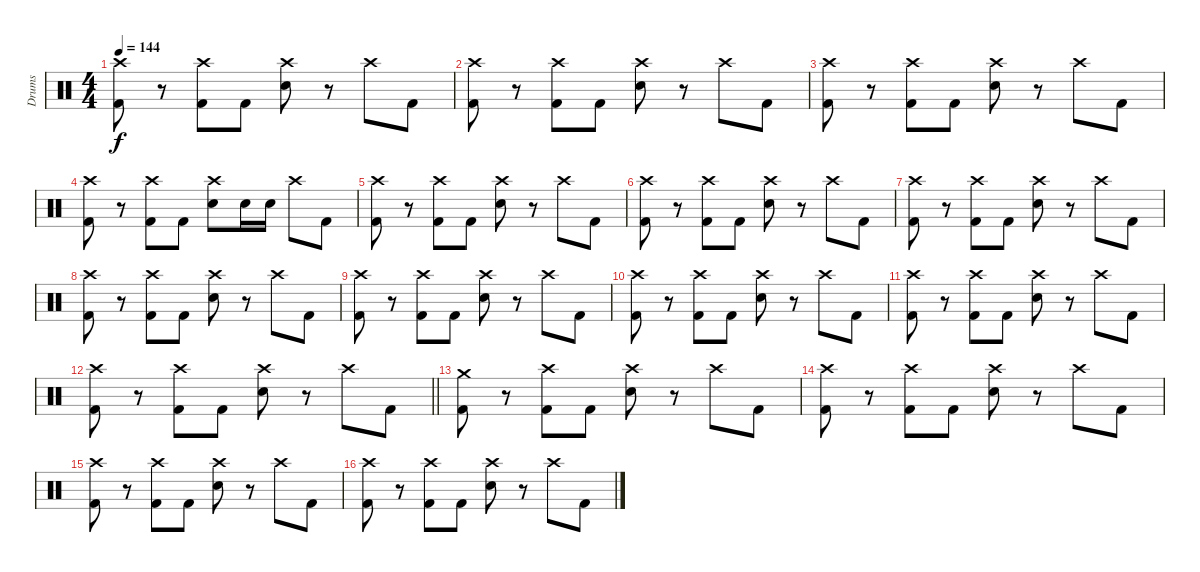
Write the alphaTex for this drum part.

\track ("Drums" "Drums") {instrument percussion}
\staff {score}
\articulation defaults
\ts (4 4)
\tempo 144
\clef neutral
\ks c
("Crash high (hit)" "Kick (hit) 2").8{dy f} r.8 ("Crash high (hit)" "Kick (hit) 2").8 "Kick (hit) 2".8 ("Crash high (hit)" "Electric Snare (hit)").8 r.8 "Crash high (hit)".8 "Kick (hit) 2".8 |
("Crash high (hit)" "Kick (hit) 2").8 r.8 ("Crash high (hit)" "Kick (hit) 2").8 "Kick (hit) 2".8 ("Crash high (hit)" "Electric Snare (hit)").8 r.8 "Crash high (hit)".8 "Kick (hit) 2".8 |
("Crash high (hit)" "Kick (hit) 2").8 r.8 ("Crash high (hit)" "Kick (hit) 2").8 "Kick (hit) 2".8 ("Crash high (hit)" "Electric Snare (hit)").8 r.8 "Crash high (hit)".8 "Kick (hit) 2".8 |
("Crash high (hit)" "Kick (hit) 2").8 r.8 ("Crash high (hit)" "Kick (hit) 2").8 "Kick (hit) 2".8 ("Crash high (hit)" "Electric Snare (hit)").8 "Electric Snare (hit)".16 "Electric Snare (hit)".16 "Crash high (hit)".8 "Kick (hit) 2".8 |
("Crash high (hit)" "Kick (hit) 2").8 r.8 ("Crash high (hit)" "Kick (hit) 2").8 "Kick (hit) 2".8 ("Crash high (hit)" "Electric Snare (hit)").8 r.8 "Crash high (hit)".8 "Kick (hit) 2".8 |
("Crash high (hit)" "Kick (hit) 2").8 r.8 ("Crash high (hit)" "Kick (hit) 2").8 "Kick (hit) 2".8 ("Crash high (hit)" "Electric Snare (hit)").8 r.8 "Crash high (hit)".8 "Kick (hit) 2".8 |
("Crash high (hit)" "Kick (hit) 2").8 r.8 ("Crash high (hit)" "Kick (hit) 2").8 "Kick (hit) 2".8 ("Crash high (hit)" "Electric Snare (hit)").8 r.8 "Crash high (hit)".8 "Kick (hit) 2".8 |
("Crash high (hit)" "Kick (hit) 2").8 r.8 ("Crash high (hit)" "Kick (hit) 2").8 "Kick (hit) 2".8 ("Crash high (hit)" "Electric Snare (hit)").8 r.8 "Crash high (hit)".8 "Kick (hit) 2".8 |
("Crash high (hit)" "Kick (hit) 2").8 r.8 ("Crash high (hit)" "Kick (hit) 2").8 "Kick (hit) 2".8 ("Crash high (hit)" "Electric Snare (hit)").8 r.8 "Crash high (hit)".8 "Kick (hit) 2".8 |
("Crash high (hit)" "Kick (hit) 2").8 r.8 ("Crash high (hit)" "Kick (hit) 2").8 "Kick (hit) 2".8 ("Crash high (hit)" "Electric Snare (hit)").8 r.8 "Crash high (hit)".8 "Kick (hit) 2".8 |
("Crash high (hit)" "Kick (hit) 2").8 r.8 ("Crash high (hit)" "Kick (hit) 2").8 "Kick (hit) 2".8 ("Crash high (hit)" "Electric Snare (hit)").8 r.8 "Crash high (hit)".8 "Kick (hit) 2".8 |
\barLineRight lightlight
("Crash high (hit)" "Kick (hit) 2").8 r.8 ("Crash high (hit)" "Kick (hit) 2").8 "Kick (hit) 2".8 ("Crash high (hit)" "Electric Snare (hit)").8 r.8 "Crash high (hit)".8 "Kick (hit) 2".8 |
("Crash medium (hit)" "Kick (hit) 2").8 r.8 ("Crash high (hit)" "Kick (hit) 2").8 "Kick (hit) 2".8 ("Crash high (hit)" "Electric Snare (hit)").8 r.8 "Crash high (hit)".8 "Kick (hit) 2".8 |
("Crash high (hit)" "Kick (hit) 2").8 r.8 ("Crash high (hit)" "Kick (hit) 2").8 "Kick (hit) 2".8 ("Crash high (hit)" "Electric Snare (hit)").8 r.8 "Crash high (hit)".8 "Kick (hit) 2".8 |
("Crash high (hit)" "Kick (hit) 2").8 r.8 ("Crash high (hit)" "Kick (hit) 2").8 "Kick (hit) 2".8 ("Crash high (hit)" "Electric Snare (hit)").8 r.8 "Crash high (hit)".8 "Kick (hit) 2".8 |
("Crash high (hit)" "Kick (hit) 2").8 r.8 ("Crash high (hit)" "Kick (hit) 2").8 "Kick (hit) 2".8 ("Crash high (hit)" "Electric Snare (hit)").8 r.8 "Crash high (hit)".8 "Kick (hit) 2".8
